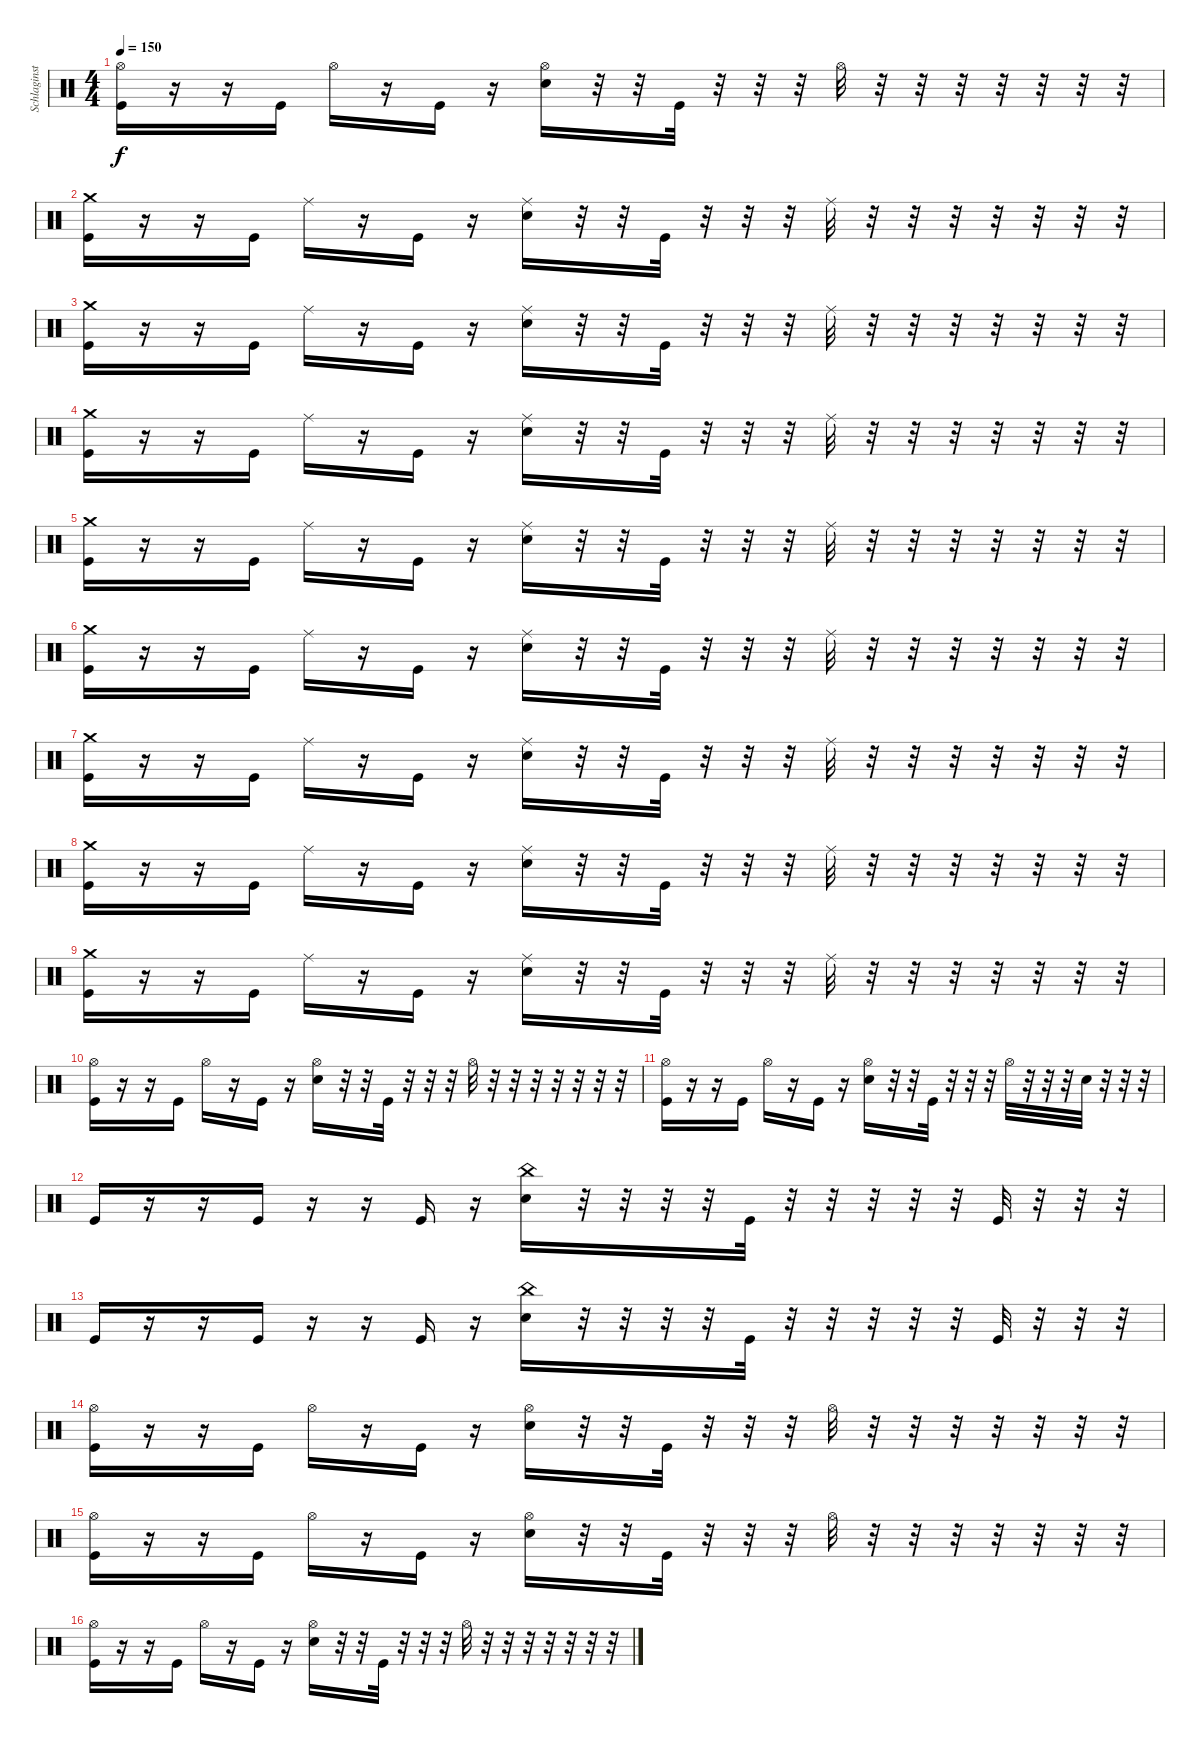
\track ("Schlaginstrumente - Auswahl" "Schlaginst") {instrument percussion}
\staff {score}
\articulation defaults
\ts (4 4)
\tempo 150
\clef neutral
\ks c
("Kick (hit)" "Hi-Hat (open)").16{dy f} r.16 r.16 "Kick (hit)".16 "Hi-Hat (open)".16 r.16 "Kick (hit)".16 r.16 ("Electric Snare (hit)" "Hi-Hat (open)").16 r.32 r.32 "Kick (hit)".32 r.32 r.32 r.32 "Hi-Hat (open)".32 r.32 r.32 r.32 r.32 r.32 r.32 r.32 |
("Kick (hit)" "Crash medium (hit)").16 r.16 r.16 "Kick (hit)".16 "Ride (middle)".16 r.16 "Kick (hit)".16 r.16 ("Electric Snare (hit)" "Ride (middle)").16 r.32 r.32 "Kick (hit)".32 r.32 r.32 r.32 "Ride (middle)".32 r.32 r.32 r.32 r.32 r.32 r.32 r.32 |
("Kick (hit)" "Crash medium (hit)").16 r.16 r.16 "Kick (hit)".16 "Ride (middle)".16 r.16 "Kick (hit)".16 r.16 ("Electric Snare (hit)" "Ride (middle)").16 r.32 r.32 "Kick (hit)".32 r.32 r.32 r.32 "Ride (middle)".32 r.32 r.32 r.32 r.32 r.32 r.32 r.32 |
("Kick (hit)" "Crash medium (hit)").16 r.16 r.16 "Kick (hit)".16 "Ride (middle)".16 r.16 "Kick (hit)".16 r.16 ("Electric Snare (hit)" "Ride (middle)").16 r.32 r.32 "Kick (hit)".32 r.32 r.32 r.32 "Ride (middle)".32 r.32 r.32 r.32 r.32 r.32 r.32 r.32 |
("Kick (hit)" "Crash medium (hit)").16 r.16 r.16 "Kick (hit)".16 "Ride (middle)".16 r.16 "Kick (hit)".16 r.16 ("Electric Snare (hit)" "Ride (middle)").16 r.32 r.32 "Kick (hit)".32 r.32 r.32 r.32 "Ride (middle)".32 r.32 r.32 r.32 r.32 r.32 r.32 r.32 |
("Kick (hit)" "Crash medium (hit)").16 r.16 r.16 "Kick (hit)".16 "Ride (middle)".16 r.16 "Kick (hit)".16 r.16 ("Electric Snare (hit)" "Ride (middle)").16 r.32 r.32 "Kick (hit)".32 r.32 r.32 r.32 "Ride (middle)".32 r.32 r.32 r.32 r.32 r.32 r.32 r.32 |
("Kick (hit)" "Crash medium (hit)").16 r.16 r.16 "Kick (hit)".16 "Ride (middle)".16 r.16 "Kick (hit)".16 r.16 ("Electric Snare (hit)" "Ride (middle)").16 r.32 r.32 "Kick (hit)".32 r.32 r.32 r.32 "Ride (middle)".32 r.32 r.32 r.32 r.32 r.32 r.32 r.32 |
("Kick (hit)" "Crash medium (hit)").16 r.16 r.16 "Kick (hit)".16 "Ride (middle)".16 r.16 "Kick (hit)".16 r.16 ("Electric Snare (hit)" "Ride (middle)").16 r.32 r.32 "Kick (hit)".32 r.32 r.32 r.32 "Ride (middle)".32 r.32 r.32 r.32 r.32 r.32 r.32 r.32 |
("Kick (hit)" "Crash medium (hit)").16 r.16 r.16 "Kick (hit)".16 "Ride (middle)".16 r.16 "Kick (hit)".16 r.16 ("Electric Snare (hit)" "Ride (middle)").16 r.32 r.32 "Kick (hit)".32 r.32 r.32 r.32 "Ride (middle)".32 r.32 r.32 r.32 r.32 r.32 r.32 r.32 |
("Kick (hit)" "Hi-Hat (open)").16 r.16 r.16 "Kick (hit)".16 "Hi-Hat (open)".16 r.16 "Kick (hit)".16 r.16 ("Electric Snare (hit)" "Hi-Hat (open)").16 r.32 r.32 "Kick (hit)".32 r.32 r.32 r.32 "Hi-Hat (open)".32 r.32 r.32 r.32 r.32 r.32 r.32 r.32 |
("Kick (hit)" "Hi-Hat (open)").16 r.16 r.16 "Kick (hit)".16 "Hi-Hat (open)".16 r.16 "Kick (hit)".16 r.16 ("Electric Snare (hit)" "Hi-Hat (open)").16 r.32 r.32 "Kick (hit)".32 r.32 r.32 r.32 "Hi-Hat (open)".32 r.32 r.32 r.32 "Electric Snare (hit)".32 r.32 r.32 r.32 |
"Kick (hit)".16 r.16 r.16 "Kick (hit)".16 r.16 r.16 "Kick (hit)".16 r.16 ("China (hit)" "Electric Snare (hit)").16 r.32 r.32 r.32 r.32 "Kick (hit)".32 r.32 r.32 r.32 r.32 r.32 "Kick (hit)".32 r.32 r.32 r.32 |
"Kick (hit)".16 r.16 r.16 "Kick (hit)".16 r.16 r.16 "Kick (hit)".16 r.16 ("Electric Snare (hit)" "China (hit)").16 r.32 r.32 r.32 r.32 "Kick (hit)".32 r.32 r.32 r.32 r.32 r.32 "Kick (hit)".32 r.32 r.32 r.32 |
("Kick (hit)" "Hi-Hat (open)").16 r.16 r.16 "Kick (hit)".16 "Hi-Hat (open)".16 r.16 "Kick (hit)".16 r.16 ("Electric Snare (hit)" "Hi-Hat (open)").16 r.32 r.32 "Kick (hit)".32 r.32 r.32 r.32 "Hi-Hat (open)".32 r.32 r.32 r.32 r.32 r.32 r.32 r.32 |
("Kick (hit)" "Hi-Hat (open)").16 r.16 r.16 "Kick (hit)".16 "Hi-Hat (open)".16 r.16 "Kick (hit)".16 r.16 ("Electric Snare (hit)" "Hi-Hat (open)").16 r.32 r.32 "Kick (hit)".32 r.32 r.32 r.32 "Hi-Hat (open)".32 r.32 r.32 r.32 r.32 r.32 r.32 r.32 |
("Kick (hit)" "Hi-Hat (open)").16 r.16 r.16 "Kick (hit)".16 "Hi-Hat (open)".16 r.16 "Kick (hit)".16 r.16 ("Electric Snare (hit)" "Hi-Hat (open)").16 r.32 r.32 "Kick (hit)".32 r.32 r.32 r.32 "Hi-Hat (open)".32 r.32 r.32 r.32 r.32 r.32 r.32 r.32
